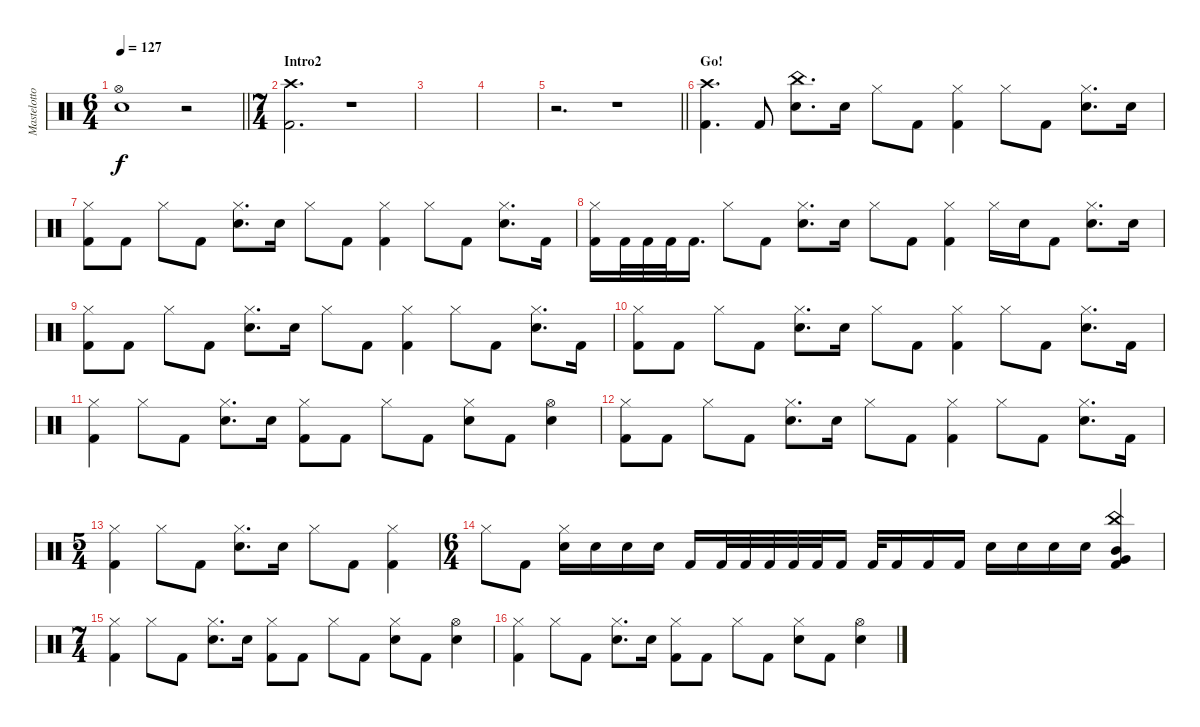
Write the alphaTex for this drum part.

\track ("Mastelotto" "Mastelotto") {instrument percussion}
\staff {score}
\articulation defaults
\ts (6 4)
\tempo 127
\clef neutral
\barLineRight lightlight
\ks c
("Hi-Hat (open)" "Electric Snare (hit)").1{dy f} r.2 |
\ts (7 4)
\section ("" "Intro2")
("Crash high (hit)" "Kick (hit) 2").2{d} r.1 |
|
|
\barLineRight lightlight
r.2{d} r.1 |
\section ("" "Go!")
("Crash high (hit)" "Kick (hit) 2").4{d} "Kick (hit) 2".8 ("China (hit)" "Electric Snare (hit)").8{d} "Electric Snare (hit)".16 "Hi-Hat (closed)".8 "Kick (hit) 2".8 ("Hi-Hat (closed)" "Kick (hit) 2").4 "Hi-Hat (closed)".8 "Kick (hit) 2".8 ("Hi-Hat (closed)" "Electric Snare (hit)").8{d} "Electric Snare (hit)".16 |
("Hi-Hat (closed)" "Kick (hit) 2").8 "Kick (hit) 2".8 "Hi-Hat (closed)".8 "Kick (hit) 2".8 ("Hi-Hat (closed)" "Electric Snare (hit)").8{d} "Electric Snare (hit)".16 "Hi-Hat (closed)".8 "Kick (hit) 2".8 ("Hi-Hat (closed)" "Kick (hit) 2").4 "Hi-Hat (closed)".8 "Kick (hit) 2".8 ("Hi-Hat (closed)" "Electric Snare (hit)").8{d} "Kick (hit) 2".16 |
("Hi-Hat (closed)" "Kick (hit) 2").16 "Kick (hit) 2".32 "Kick (hit) 2".32 "Kick (hit) 2".32 "Kick (hit) 2".16{d} "Hi-Hat (closed)".8 "Kick (hit) 2".8 ("Hi-Hat (closed)" "Electric Snare (hit)").8{d} "Electric Snare (hit)".16 "Hi-Hat (closed)".8 "Kick (hit) 2".8 ("Hi-Hat (closed)" "Kick (hit) 2").4 "Hi-Hat (closed)".16 "Electric Snare (hit)".16 "Kick (hit) 2".8 ("Hi-Hat (closed)" "Electric Snare (hit)").8{d} "Electric Snare (hit)".16 |
("Hi-Hat (closed)" "Kick (hit) 2").8 "Kick (hit) 2".8 "Hi-Hat (closed)".8 "Kick (hit) 2".8 ("Hi-Hat (closed)" "Electric Snare (hit)").8{d} "Electric Snare (hit)".16 "Hi-Hat (closed)".8 "Kick (hit) 2".8 ("Hi-Hat (closed)" "Kick (hit) 2").4 "Hi-Hat (closed)".8 "Kick (hit) 2".8 ("Hi-Hat (closed)" "Electric Snare (hit)").8{d} "Kick (hit) 2".16 |
("Hi-Hat (closed)" "Kick (hit) 2").8 "Kick (hit) 2".8 "Hi-Hat (closed)".8 "Kick (hit) 2".8 ("Hi-Hat (closed)" "Electric Snare (hit)").8{d} "Electric Snare (hit)".16 "Hi-Hat (closed)".8 "Kick (hit) 2".8 ("Hi-Hat (closed)" "Kick (hit) 2").4 "Hi-Hat (closed)".8 "Kick (hit) 2".8 ("Hi-Hat (closed)" "Electric Snare (hit)").8{d} "Kick (hit) 2".16 |
("Hi-Hat (closed)" "Kick (hit) 2").4 "Hi-Hat (closed)".8 "Kick (hit) 2".8 ("Hi-Hat (closed)" "Electric Snare (hit)").8{d} "Electric Snare (hit)".16 ("Hi-Hat (closed)" "Kick (hit) 2").8 "Kick (hit) 2".8 "Hi-Hat (closed)".8 "Kick (hit) 2".8 ("Hi-Hat (closed)" "Electric Snare (hit)").8 "Kick (hit) 2".8 ("Hi-Hat (open)" "Electric Snare (hit)").4 |
("Hi-Hat (closed)" "Kick (hit) 2").8 "Kick (hit) 2".8 "Hi-Hat (closed)".8 "Kick (hit) 2".8 ("Hi-Hat (closed)" "Electric Snare (hit)").8{d} "Electric Snare (hit)".16 "Hi-Hat (closed)".8 "Kick (hit) 2".8 ("Hi-Hat (closed)" "Kick (hit) 2").4 "Hi-Hat (closed)".8 "Kick (hit) 2".8 ("Hi-Hat (closed)" "Electric Snare (hit)").8{d} "Kick (hit) 2".16 |
\ts (5 4)
("Hi-Hat (closed)" "Kick (hit) 2").4 "Hi-Hat (closed)".8 "Kick (hit) 2".8 ("Hi-Hat (closed)" "Electric Snare (hit)").8{d} "Electric Snare (hit)".16 "Hi-Hat (closed)".8 "Kick (hit) 2".8 ("Hi-Hat (closed)" "Kick (hit) 2").4 |
\ts (6 4)
"Hi-Hat (closed)".8 "Kick (hit) 2".8 ("Hi-Hat (closed)" "Electric Snare (hit)").16 "Electric Snare (hit)".16 "Electric Snare (hit)".16 "Electric Snare (hit)".16 "Kick (hit) 2".16 "Kick (hit) 2".32 "Kick (hit) 2".32 "Kick (hit) 2".32 "Kick (hit) 2".32 "Kick (hit) 2".32 "Kick (hit) 2".16 "Kick (hit) 2".32 "Kick (hit) 2".16 "Kick (hit) 2".16 "Kick (hit) 2".16 "Electric Snare (hit)".16 "Electric Snare (hit)".16 "Electric Snare (hit)".16 "Electric Snare (hit)".16 ("China (hit)" "Mid Tom (hit)" "Very Low Tom (hit)" "Kick (hit) 2").4 |
\ts (7 4)
("Hi-Hat (closed)" "Kick (hit) 2").4 "Hi-Hat (closed)".8 "Kick (hit) 2".8 ("Hi-Hat (closed)" "Electric Snare (hit)").8{d} "Electric Snare (hit)".16 ("Hi-Hat (closed)" "Kick (hit) 2").8 "Kick (hit) 2".8 "Hi-Hat (closed)".8 "Kick (hit) 2".8 ("Hi-Hat (closed)" "Electric Snare (hit)").8 "Kick (hit) 2".8 ("Hi-Hat (open)" "Electric Snare (hit)").4 |
("Hi-Hat (closed)" "Kick (hit) 2").4 "Hi-Hat (closed)".8 "Kick (hit) 2".8 ("Hi-Hat (closed)" "Electric Snare (hit)").8{d} "Electric Snare (hit)".16 ("Hi-Hat (closed)" "Kick (hit) 2").8 "Kick (hit) 2".8 "Hi-Hat (closed)".8 "Kick (hit) 2".8 ("Hi-Hat (closed)" "Electric Snare (hit)").8 "Kick (hit) 2".8 ("Hi-Hat (open)" "Electric Snare (hit)").4
